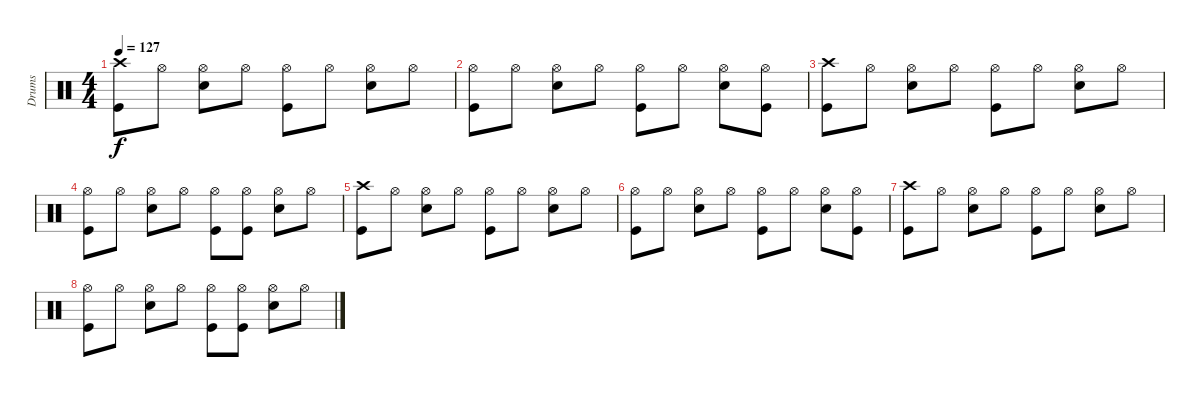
\track ("Drums" "Drums") {instrument percussion}
\staff {score}
\articulation defaults
\ts (4 4)
\tempo 127
\clef neutral
\ks c
("Crash high (hit)" "Kick (hit)").8{dy f volume 7} "Hi-Hat (open)".8 ("Hi-Hat (open)" "Snare (hit) 2").8 "Hi-Hat (open)".8 ("Hi-Hat (open)" "Kick (hit)").8 "Hi-Hat (open)".8 ("Hi-Hat (open)" "Snare (hit) 2").8 "Hi-Hat (open)".8 |
("Hi-Hat (open)" "Kick (hit)").8 "Hi-Hat (open)".8 ("Hi-Hat (open)" "Snare (hit) 2").8 "Hi-Hat (open)".8 ("Hi-Hat (open)" "Kick (hit)").8 "Hi-Hat (open)".8 ("Hi-Hat (open)" "Snare (hit) 2").8 ("Hi-Hat (open)" "Kick (hit)").8 |
("Crash high (hit)" "Kick (hit)").8 "Hi-Hat (open)".8 ("Hi-Hat (open)" "Snare (hit) 2").8 "Hi-Hat (open)".8 ("Hi-Hat (open)" "Kick (hit)").8 "Hi-Hat (open)".8 ("Hi-Hat (open)" "Snare (hit) 2").8 "Hi-Hat (open)".8 |
("Hi-Hat (open)" "Kick (hit)").8 "Hi-Hat (open)".8 ("Hi-Hat (open)" "Snare (hit) 2").8 "Hi-Hat (open)".8 ("Hi-Hat (open)" "Kick (hit)").8 ("Hi-Hat (open)" "Kick (hit)").8 ("Hi-Hat (open)" "Snare (hit) 2").8 "Hi-Hat (open)".8 |
("Crash high (hit)" "Kick (hit)").8{volume 0} "Hi-Hat (open)".8 ("Hi-Hat (open)" "Snare (hit) 2").8 "Hi-Hat (open)".8 ("Hi-Hat (open)" "Kick (hit)").8 "Hi-Hat (open)".8 ("Hi-Hat (open)" "Snare (hit) 2").8 "Hi-Hat (open)".8 |
("Hi-Hat (open)" "Kick (hit)").8 "Hi-Hat (open)".8 ("Hi-Hat (open)" "Snare (hit) 2").8 "Hi-Hat (open)".8 ("Hi-Hat (open)" "Kick (hit)").8 "Hi-Hat (open)".8 ("Hi-Hat (open)" "Snare (hit) 2").8 ("Hi-Hat (open)" "Kick (hit)").8 |
("Crash high (hit)" "Kick (hit)").8 "Hi-Hat (open)".8 ("Hi-Hat (open)" "Snare (hit) 2").8 "Hi-Hat (open)".8 ("Hi-Hat (open)" "Kick (hit)").8 "Hi-Hat (open)".8 ("Hi-Hat (open)" "Snare (hit) 2").8 "Hi-Hat (open)".8 |
("Hi-Hat (open)" "Kick (hit)").8 "Hi-Hat (open)".8 ("Hi-Hat (open)" "Snare (hit) 2").8 "Hi-Hat (open)".8 ("Hi-Hat (open)" "Kick (hit)").8 ("Hi-Hat (open)" "Kick (hit)").8 ("Hi-Hat (open)" "Snare (hit) 2").8 "Hi-Hat (open)".8
